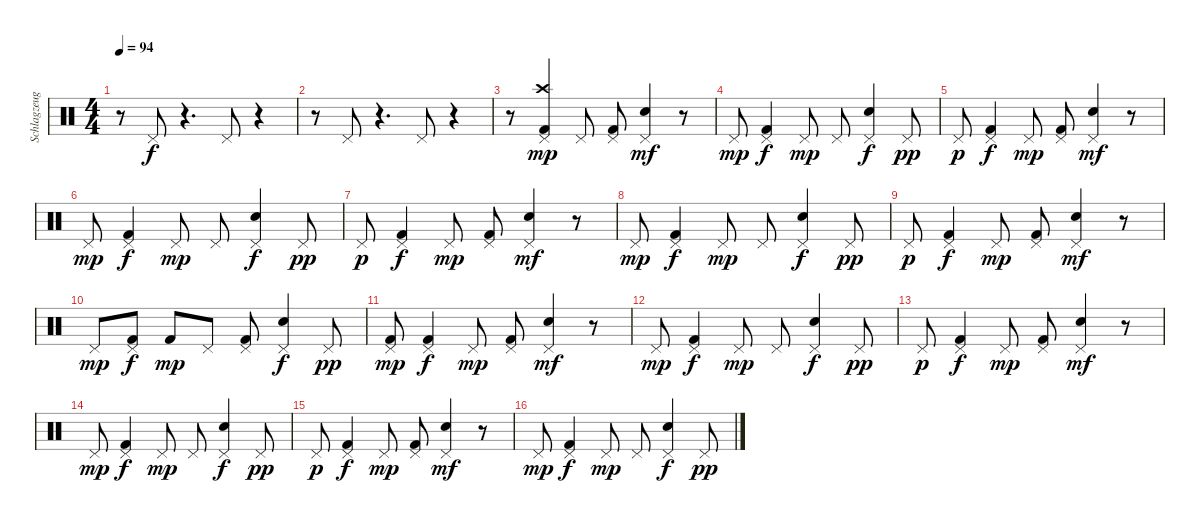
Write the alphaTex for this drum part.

\track ("Schlagzeug" "Schlagzeug") {instrument percussion}
\staff {score}
\articulation defaults
\ts (4 4)
\tempo 94
\clef neutral
\ks c
r.8{dy f} "Pedal Hi-Hat (hit)".8 r.4{d} "Pedal Hi-Hat (hit)".8 r.4 |
r.8 "Pedal Hi-Hat (hit)".8 r.4{d} "Pedal Hi-Hat (hit)".8 r.4 |
r.8 ("Crash high (hit)" "Kick (hit) 2" "Pedal Hi-Hat (hit)").4{dy mp} "Pedal Hi-Hat (hit)".8 ("Kick (hit) 2" "Pedal Hi-Hat (hit)").8 ("Electric Snare (hit)" "Pedal Hi-Hat (hit)").4{dy mf} r.8 |
"Pedal Hi-Hat (hit)".8{dy mp} ("Kick (hit) 2" "Pedal Hi-Hat (hit)").4{dy f} "Pedal Hi-Hat (hit)".8{dy mp} "Pedal Hi-Hat (hit)".8 ("Electric Snare (hit)" "Pedal Hi-Hat (hit)").4{dy f} "Pedal Hi-Hat (hit)".8{dy pp} |
"Pedal Hi-Hat (hit)".8{dy p} ("Kick (hit) 2" "Pedal Hi-Hat (hit)").4{dy f} "Pedal Hi-Hat (hit)".8{dy mp} ("Kick (hit) 2" "Pedal Hi-Hat (hit)").8 ("Electric Snare (hit)" "Pedal Hi-Hat (hit)").4{dy mf} r.8 |
"Pedal Hi-Hat (hit)".8{dy mp} ("Kick (hit) 2" "Pedal Hi-Hat (hit)").4{dy f} "Pedal Hi-Hat (hit)".8{dy mp} "Pedal Hi-Hat (hit)".8 ("Electric Snare (hit)" "Pedal Hi-Hat (hit)").4{dy f} "Pedal Hi-Hat (hit)".8{dy pp} |
"Pedal Hi-Hat (hit)".8{dy p} ("Kick (hit) 2" "Pedal Hi-Hat (hit)").4{dy f} "Pedal Hi-Hat (hit)".8{dy mp} ("Kick (hit) 2" "Pedal Hi-Hat (hit)").8 ("Electric Snare (hit)" "Pedal Hi-Hat (hit)").4{dy mf} r.8 |
"Pedal Hi-Hat (hit)".8{dy mp} ("Kick (hit) 2" "Pedal Hi-Hat (hit)").4{dy f} "Pedal Hi-Hat (hit)".8{dy mp} "Pedal Hi-Hat (hit)".8 ("Electric Snare (hit)" "Pedal Hi-Hat (hit)").4{dy f} "Pedal Hi-Hat (hit)".8{dy pp} |
"Pedal Hi-Hat (hit)".8{dy p} ("Kick (hit) 2" "Pedal Hi-Hat (hit)").4{dy f} "Pedal Hi-Hat (hit)".8{dy mp} ("Kick (hit) 2" "Pedal Hi-Hat (hit)").8 ("Electric Snare (hit)" "Pedal Hi-Hat (hit)").4{dy mf} r.8 |
"Pedal Hi-Hat (hit)".8{dy mp} ("Pedal Hi-Hat (hit)" "Kick (hit) 2").8{dy f} "Kick (hit) 2".8{dy mp} "Pedal Hi-Hat (hit)".8 ("Kick (hit) 2" "Pedal Hi-Hat (hit)").8 ("Electric Snare (hit)" "Pedal Hi-Hat (hit)").4{dy f} "Pedal Hi-Hat (hit)".8{dy pp} |
("Pedal Hi-Hat (hit)" "Kick (hit) 2").8{dy mp} ("Kick (hit) 2" "Pedal Hi-Hat (hit)").4{dy f} "Pedal Hi-Hat (hit)".8{dy mp} ("Kick (hit) 2" "Pedal Hi-Hat (hit)").8 ("Electric Snare (hit)" "Pedal Hi-Hat (hit)").4{dy mf} r.8 |
"Pedal Hi-Hat (hit)".8{dy mp} ("Kick (hit) 2" "Pedal Hi-Hat (hit)").4{dy f} "Pedal Hi-Hat (hit)".8{dy mp} "Pedal Hi-Hat (hit)".8 ("Electric Snare (hit)" "Pedal Hi-Hat (hit)").4{dy f} "Pedal Hi-Hat (hit)".8{dy pp} |
"Pedal Hi-Hat (hit)".8{dy p} ("Kick (hit) 2" "Pedal Hi-Hat (hit)").4{dy f} "Pedal Hi-Hat (hit)".8{dy mp} ("Kick (hit) 2" "Pedal Hi-Hat (hit)").8 ("Electric Snare (hit)" "Pedal Hi-Hat (hit)").4{dy mf} r.8 |
"Pedal Hi-Hat (hit)".8{dy mp} ("Kick (hit) 2" "Pedal Hi-Hat (hit)").4{dy f} "Pedal Hi-Hat (hit)".8{dy mp} "Pedal Hi-Hat (hit)".8 ("Electric Snare (hit)" "Pedal Hi-Hat (hit)").4{dy f} "Pedal Hi-Hat (hit)".8{dy pp} |
"Pedal Hi-Hat (hit)".8{dy p} ("Kick (hit) 2" "Pedal Hi-Hat (hit)").4{dy f} "Pedal Hi-Hat (hit)".8{dy mp} ("Kick (hit) 2" "Pedal Hi-Hat (hit)").8 ("Electric Snare (hit)" "Pedal Hi-Hat (hit)").4{dy mf} r.8 |
"Pedal Hi-Hat (hit)".8{dy mp} ("Kick (hit) 2" "Pedal Hi-Hat (hit)").4{dy f} "Pedal Hi-Hat (hit)".8{dy mp} "Pedal Hi-Hat (hit)".8 ("Electric Snare (hit)" "Pedal Hi-Hat (hit)").4{dy f} "Pedal Hi-Hat (hit)".8{dy pp}
